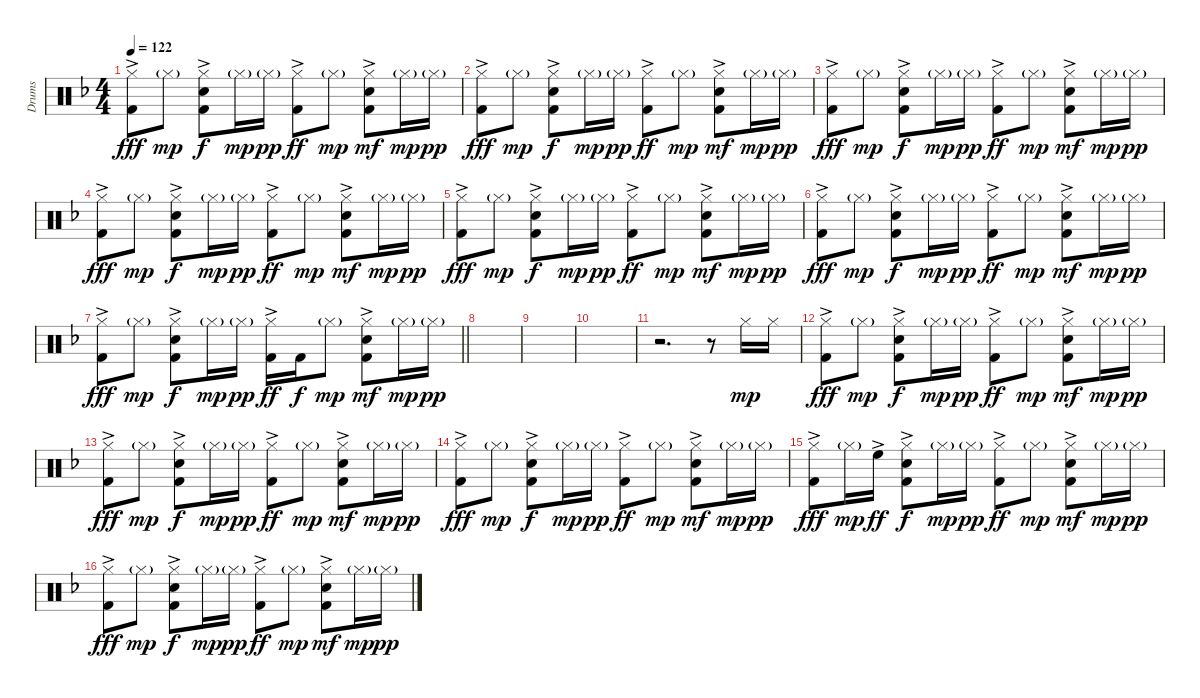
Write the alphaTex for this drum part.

\track ("Drums" "Drums") {instrument percussion}
\staff {score}
\articulation defaults
\ts (4 4)
\tempo 122
\clef neutral
\ks f
("Kick (hit) 2"{ac} "Hi-Hat (closed)").8{dy fff} "Hi-Hat (closed)"{g}.8{dy mp} ("Kick (hit) 2" "Snare (hit) 2"{ac} "Hi-Hat (closed)").8{dy f} "Hi-Hat (closed)"{g}.16{dy mp} "Hi-Hat (closed)"{g}.16{dy pp} ("Kick (hit) 2"{ac} "Hi-Hat (closed)").8{dy ff} "Hi-Hat (closed)"{g}.8{dy mp} ("Kick (hit) 2" "Snare (hit) 2"{ac} "Hi-Hat (closed)").8{dy mf} "Hi-Hat (closed)"{g}.16{dy mp} "Hi-Hat (closed)"{g}.16{dy pp} |
("Kick (hit) 2"{ac} "Hi-Hat (closed)").8{dy fff} "Hi-Hat (closed)"{g}.8{dy mp} ("Kick (hit) 2" "Snare (hit) 2"{ac} "Hi-Hat (closed)").8{dy f} "Hi-Hat (closed)"{g}.16{dy mp} "Hi-Hat (closed)"{g}.16{dy pp} ("Kick (hit) 2"{ac} "Hi-Hat (closed)").8{dy ff} "Hi-Hat (closed)"{g}.8{dy mp} ("Kick (hit) 2" "Snare (hit) 2"{ac} "Hi-Hat (closed)").8{dy mf} "Hi-Hat (closed)"{g}.16{dy mp} "Hi-Hat (closed)"{g}.16{dy pp} |
("Kick (hit) 2"{ac} "Hi-Hat (closed)").8{dy fff} "Hi-Hat (closed)"{g}.8{dy mp} ("Kick (hit) 2" "Snare (hit) 2"{ac} "Hi-Hat (closed)").8{dy f} "Hi-Hat (closed)"{g}.16{dy mp} "Hi-Hat (closed)"{g}.16{dy pp} ("Kick (hit) 2"{ac} "Hi-Hat (closed)").8{dy ff} "Hi-Hat (closed)"{g}.8{dy mp} ("Kick (hit) 2" "Snare (hit) 2"{ac} "Hi-Hat (closed)").8{dy mf} "Hi-Hat (closed)"{g}.16{dy mp} "Hi-Hat (closed)"{g}.16{dy pp} |
("Kick (hit) 2"{ac} "Hi-Hat (closed)").8{dy fff} "Hi-Hat (closed)"{g}.8{dy mp} ("Kick (hit) 2" "Snare (hit) 2"{ac} "Hi-Hat (closed)").8{dy f} "Hi-Hat (closed)"{g}.16{dy mp} "Hi-Hat (closed)"{g}.16{dy pp} ("Kick (hit) 2"{ac} "Hi-Hat (closed)").8{dy ff} "Hi-Hat (closed)"{g}.8{dy mp} ("Kick (hit) 2" "Snare (hit) 2"{ac} "Hi-Hat (closed)").8{dy mf} "Hi-Hat (closed)"{g}.16{dy mp} "Hi-Hat (closed)"{g}.16{dy pp} |
("Kick (hit) 2"{ac} "Hi-Hat (closed)").8{dy fff} "Hi-Hat (closed)"{g}.8{dy mp} ("Kick (hit) 2" "Snare (hit) 2"{ac} "Hi-Hat (closed)").8{dy f} "Hi-Hat (closed)"{g}.16{dy mp} "Hi-Hat (closed)"{g}.16{dy pp} ("Kick (hit) 2"{ac} "Hi-Hat (closed)").8{dy ff} "Hi-Hat (closed)"{g}.8{dy mp} ("Kick (hit) 2" "Snare (hit) 2"{ac} "Hi-Hat (closed)").8{dy mf} "Hi-Hat (closed)"{g}.16{dy mp} "Hi-Hat (closed)"{g}.16{dy pp} |
("Kick (hit) 2"{ac} "Hi-Hat (closed)").8{dy fff} "Hi-Hat (closed)"{g}.8{dy mp} ("Kick (hit) 2" "Snare (hit) 2"{ac} "Hi-Hat (closed)").8{dy f} "Hi-Hat (closed)"{g}.16{dy mp} "Hi-Hat (closed)"{g}.16{dy pp} ("Kick (hit) 2"{ac} "Hi-Hat (closed)").8{dy ff} "Hi-Hat (closed)"{g}.8{dy mp} ("Kick (hit) 2" "Snare (hit) 2"{ac} "Hi-Hat (closed)").8{dy mf} "Hi-Hat (closed)"{g}.16{dy mp} "Hi-Hat (closed)"{g}.16{dy pp} |
\barLineRight lightlight
("Kick (hit) 2"{ac} "Hi-Hat (closed)").8{dy fff} "Hi-Hat (closed)"{g}.8{dy mp} ("Kick (hit) 2" "Snare (hit) 2"{ac} "Hi-Hat (closed)").8{dy f} "Hi-Hat (closed)"{g}.16{dy mp} "Hi-Hat (closed)"{g}.16{dy pp} ("Kick (hit) 2"{ac} "Hi-Hat (closed)").16{dy ff} "Kick (hit) 2".16{dy f} "Hi-Hat (closed)"{g}.8{dy mp} ("Kick (hit) 2" "Snare (hit) 2"{ac} "Hi-Hat (closed)").8{dy mf} "Hi-Hat (closed)"{g}.16{dy mp} "Hi-Hat (closed)"{g}.16{dy pp} |
|
|
|
r.2{d} r.8 "Hi-Hat (closed)".16{dy mp} "Hi-Hat (closed)".16 |
("Kick (hit) 2"{ac} "Hi-Hat (closed)").8{dy fff} "Hi-Hat (closed)"{g}.8{dy mp} ("Kick (hit) 2" "Snare (hit) 2"{ac} "Hi-Hat (closed)").8{dy f} "Hi-Hat (closed)"{g}.16{dy mp} "Hi-Hat (closed)"{g}.16{dy pp} ("Kick (hit) 2"{ac} "Hi-Hat (closed)").8{dy ff} "Hi-Hat (closed)"{g}.8{dy mp} ("Kick (hit) 2" "Snare (hit) 2"{ac} "Hi-Hat (closed)").8{dy mf} "Hi-Hat (closed)"{g}.16{dy mp} "Hi-Hat (closed)"{g}.16{dy pp} |
("Kick (hit) 2"{ac} "Hi-Hat (closed)").8{dy fff} "Hi-Hat (closed)"{g}.8{dy mp} ("Kick (hit) 2" "Snare (hit) 2"{ac} "Hi-Hat (closed)").8{dy f} "Hi-Hat (closed)"{g}.16{dy mp} "Hi-Hat (closed)"{g}.16{dy pp} ("Kick (hit) 2"{ac} "Hi-Hat (closed)").8{dy ff} "Hi-Hat (closed)"{g}.8{dy mp} ("Kick (hit) 2" "Snare (hit) 2"{ac} "Hi-Hat (closed)").8{dy mf} "Hi-Hat (closed)"{g}.16{dy mp} "Hi-Hat (closed)"{g}.16{dy pp} |
("Kick (hit) 2"{ac} "Hi-Hat (closed)").8{dy fff} "Hi-Hat (closed)"{g}.8{dy mp} ("Kick (hit) 2" "Snare (hit) 2"{ac} "Hi-Hat (closed)").8{dy f} "Hi-Hat (closed)"{g}.16{dy mp} "Hi-Hat (closed)"{g}.16{dy pp} ("Kick (hit) 2"{ac} "Hi-Hat (closed)").8{dy ff} "Hi-Hat (closed)"{g}.8{dy mp} ("Kick (hit) 2" "Snare (hit) 2"{ac} "Hi-Hat (closed)").8{dy mf} "Hi-Hat (closed)"{g}.16{dy mp} "Hi-Hat (closed)"{g}.16{dy pp} |
("Kick (hit) 2"{ac} "Hi-Hat (closed)").8{dy fff} "Hi-Hat (closed)"{g}.16{dy mp} "High Floor Tom (hit)"{ac}.16{dy ff} ("Kick (hit) 2" "Snare (hit) 2"{ac} "Hi-Hat (closed)").8{dy f} "Hi-Hat (closed)"{g}.16{dy mp} "Hi-Hat (closed)"{g}.16{dy pp} ("Kick (hit) 2"{ac} "Hi-Hat (closed)").8{dy ff} "Hi-Hat (closed)"{g}.8{dy mp} ("Kick (hit) 2" "Snare (hit) 2"{ac} "Hi-Hat (closed)").8{dy mf} "Hi-Hat (closed)"{g}.16{dy mp} "Hi-Hat (closed)"{g}.16{dy pp} |
("Kick (hit) 2"{ac} "Hi-Hat (closed)").8{dy fff} "Hi-Hat (closed)"{g}.8{dy mp} ("Kick (hit) 2" "Snare (hit) 2"{ac} "Hi-Hat (closed)").8{dy f} "Hi-Hat (closed)"{g}.16{dy mp} "Hi-Hat (closed)"{g}.16{dy pp} ("Kick (hit) 2"{ac} "Hi-Hat (closed)").8{dy ff} "Hi-Hat (closed)"{g}.8{dy mp} ("Kick (hit) 2" "Snare (hit) 2"{ac} "Hi-Hat (closed)").8{dy mf} "Hi-Hat (closed)"{g}.16{dy mp} "Hi-Hat (closed)"{g}.16{dy pp}
